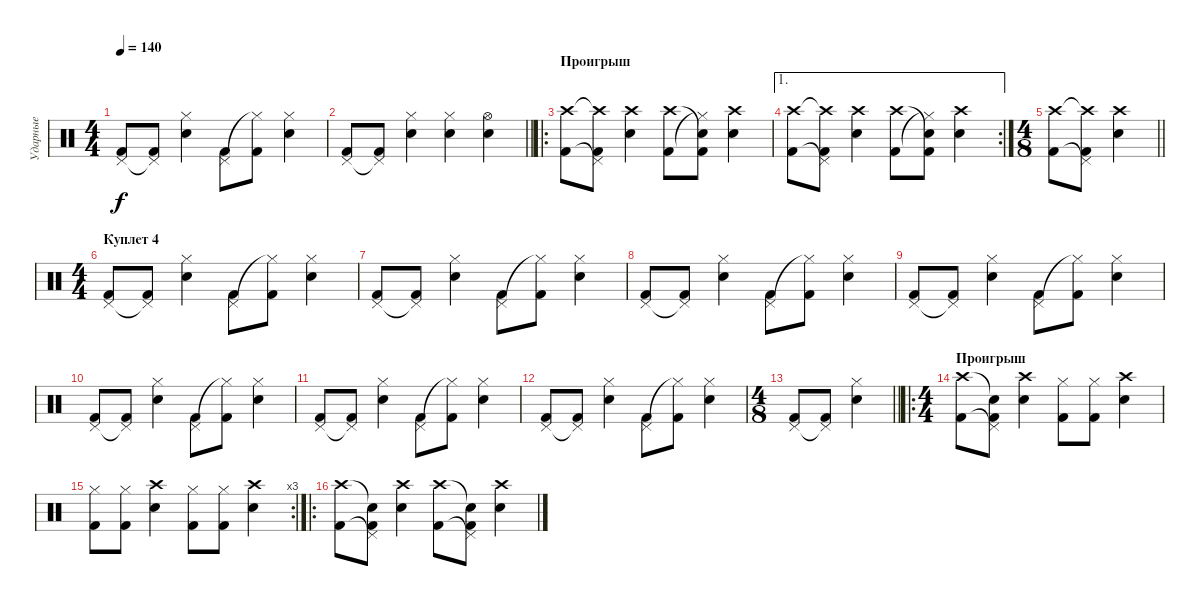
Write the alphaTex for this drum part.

\track ("Ударные" "Ударные") {instrument percussion}
\staff {score}
\articulation defaults
\ts (4 4)
\tempo 140
\clef neutral
\ks c
("Pedal Hi-Hat (hit)" "Kick (hit) 2").8{dy f} ("Pedal Hi-Hat (hit)"{t} "Kick (hit) 2").8 ("Hi-Hat (closed)" "Snare (hit) 2").4 ("Pedal Hi-Hat (hit)" "Kick (hit) 2").8 ("Hi-Hat (closed)"{t} "Kick (hit) 2").8 ("Hi-Hat (closed)" "Snare (hit) 2").4 |
\barLineRight lightlight
("Pedal Hi-Hat (hit)" "Kick (hit) 2").8 ("Pedal Hi-Hat (hit)"{t} "Kick (hit) 2").8 ("Hi-Hat (closed)" "Snare (hit) 2").4 ("Hi-Hat (closed)" "Snare (hit) 2").4 ("Hi-Hat (open)" "Snare (hit) 2").4 |
\ro
\section ("" "Проигрыш")
("Crash high (hit)" "Kick (hit) 2").8 ("Crash high (hit)"{t} "Pedal Hi-Hat (hit)"{t} "Kick (hit) 2").8 ("Crash high (hit)" "Snare (hit) 2").4 ("Crash high (hit)" "Kick (hit) 2").8 ("Snare (hit)"{t} "Hi-Hat (closed)"{t} "Kick (hit) 2").8 ("Crash high (hit)" "Snare (hit) 2").4 |
\ae 1
\rc 2
("Crash high (hit)" "Kick (hit) 2").8 ("Crash high (hit)"{t} "Pedal Hi-Hat (hit)"{t} "Kick (hit) 2").8 ("Crash high (hit)" "Snare (hit) 2").4 ("Crash high (hit)" "Kick (hit) 2").8 ("Snare (hit)"{t} "Hi-Hat (closed)"{t} "Kick (hit) 2").8 ("Crash high (hit)" "Snare (hit) 2").4 |
\ts (4 8)
\barLineRight lightlight
("Crash high (hit)" "Kick (hit) 2").8 ("Crash high (hit)"{t} "Pedal Hi-Hat (hit)"{t} "Kick (hit) 2").8 ("Crash high (hit)" "Snare (hit) 2").4 |
\ts (4 4)
\section ("" "Куплет 4")
("Pedal Hi-Hat (hit)" "Kick (hit) 2").8 ("Pedal Hi-Hat (hit)"{t} "Kick (hit) 2").8 ("Hi-Hat (closed)" "Snare (hit) 2").4 ("Pedal Hi-Hat (hit)" "Kick (hit) 2").8 ("Hi-Hat (closed)"{t} "Kick (hit) 2").8 ("Hi-Hat (closed)" "Snare (hit) 2").4 |
("Pedal Hi-Hat (hit)" "Kick (hit) 2").8 ("Pedal Hi-Hat (hit)"{t} "Kick (hit) 2").8 ("Hi-Hat (closed)" "Snare (hit) 2").4 ("Pedal Hi-Hat (hit)" "Kick (hit) 2").8 ("Hi-Hat (closed)"{t} "Kick (hit) 2").8 ("Hi-Hat (closed)" "Snare (hit) 2").4 |
("Pedal Hi-Hat (hit)" "Kick (hit) 2").8 ("Pedal Hi-Hat (hit)"{t} "Kick (hit) 2").8 ("Hi-Hat (closed)" "Snare (hit) 2").4 ("Pedal Hi-Hat (hit)" "Kick (hit) 2").8 ("Hi-Hat (closed)"{t} "Kick (hit) 2").8 ("Hi-Hat (closed)" "Snare (hit) 2").4 |
("Pedal Hi-Hat (hit)" "Kick (hit) 2").8 ("Pedal Hi-Hat (hit)"{t} "Kick (hit) 2").8 ("Hi-Hat (closed)" "Snare (hit) 2").4 ("Pedal Hi-Hat (hit)" "Kick (hit) 2").8 ("Hi-Hat (closed)"{t} "Kick (hit) 2").8 ("Hi-Hat (closed)" "Snare (hit) 2").4 |
("Pedal Hi-Hat (hit)" "Kick (hit) 2").8 ("Pedal Hi-Hat (hit)"{t} "Kick (hit) 2").8 ("Hi-Hat (closed)" "Snare (hit) 2").4 ("Pedal Hi-Hat (hit)" "Kick (hit) 2").8 ("Hi-Hat (closed)"{t} "Kick (hit) 2").8 ("Hi-Hat (closed)" "Snare (hit) 2").4 |
("Pedal Hi-Hat (hit)" "Kick (hit) 2").8 ("Pedal Hi-Hat (hit)"{t} "Kick (hit) 2").8 ("Hi-Hat (closed)" "Snare (hit) 2").4 ("Pedal Hi-Hat (hit)" "Kick (hit) 2").8 ("Hi-Hat (closed)"{t} "Kick (hit) 2").8 ("Hi-Hat (closed)" "Snare (hit) 2").4 |
("Pedal Hi-Hat (hit)" "Kick (hit) 2").8 ("Pedal Hi-Hat (hit)"{t} "Kick (hit) 2").8 ("Hi-Hat (closed)" "Snare (hit) 2").4 ("Pedal Hi-Hat (hit)" "Kick (hit) 2").8 ("Hi-Hat (closed)"{t} "Kick (hit) 2").8 ("Hi-Hat (closed)" "Snare (hit) 2").4 |
\ts (4 8)
\barLineRight lightlight
("Pedal Hi-Hat (hit)" "Kick (hit) 2").8 ("Pedal Hi-Hat (hit)"{t} "Kick (hit) 2").8 ("Hi-Hat (closed)" "Snare (hit) 2").4 |
\ro
\ts (4 4)
\section ("" "Проигрыш")
("Crash high (hit)" "Kick (hit) 2").8 ("Snare (hit)"{t} "Pedal Hi-Hat (hit)"{t} "Kick (hit) 2").8 ("Crash high (hit)" "Snare (hit) 2").4 ("Hi-Hat (closed)" "Kick (hit) 2").8 ("Hi-Hat (closed)" "Kick (hit) 2").8 ("Crash high (hit)" "Snare (hit) 2").4 |
\rc 3
("Hi-Hat (closed)" "Kick (hit) 2").8 ("Hi-Hat (closed)" "Kick (hit) 2").8 ("Crash high (hit)" "Snare (hit) 2").4 ("Hi-Hat (closed)" "Kick (hit) 2").8 ("Hi-Hat (closed)" "Kick (hit) 2").8 ("Crash high (hit)" "Snare (hit) 2").4 |
\ro
("Crash high (hit)" "Kick (hit) 2").8 ("Snare (hit)"{t} "Pedal Hi-Hat (hit)"{t} "Kick (hit) 2").8 ("Crash high (hit)" "Snare (hit) 2").4 ("Crash high (hit)" "Kick (hit) 2").8 ("Snare (hit)"{t} "Pedal Hi-Hat (hit)"{t} "Kick (hit) 2").8 ("Crash high (hit)" "Snare (hit) 2").4
